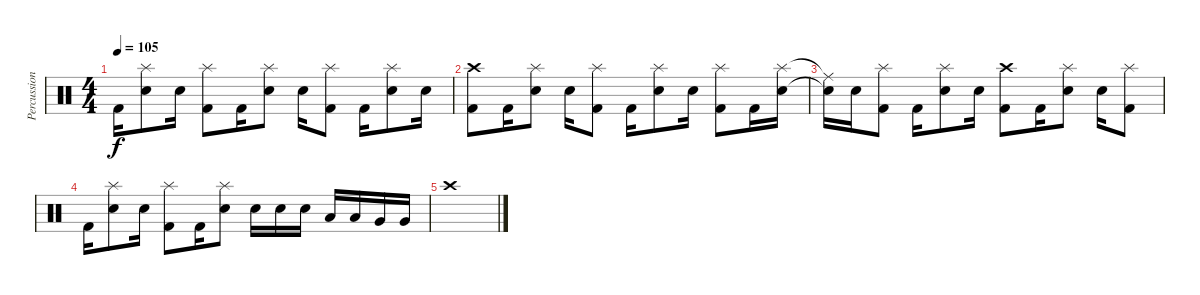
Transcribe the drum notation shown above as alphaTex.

\track ("Percussion" "Percussion") {instrument percussion}
\staff {score}
\articulation defaults
\ts (4 4)
\tempo 105
\clef neutral
\ks c "Kick (hit) 2".16{dy f}
("Electric Snare (hit)" "Splash (hit)").8 "Electric Snare (hit)".16 ("Kick (hit) 2" "Splash (hit)").8 "Kick (hit) 2".16 ("Electric Snare (hit)" "Splash (hit)").8 "Electric Snare (hit)".16 ("Kick (hit) 2" "Splash (hit)").8 "Kick (hit) 2".16 ("Electric Snare (hit)" "Splash (hit)").8 "Electric Snare (hit)".16 |
("Kick (hit) 2" "Crash high (hit)").8 "Kick (hit) 2".16 ("Electric Snare (hit)" "Splash (hit)").8 "Electric Snare (hit)".16 ("Kick (hit) 2" "Splash (hit)").8 "Kick (hit) 2".16 ("Electric Snare (hit)" "Splash (hit)").8 "Electric Snare (hit)".16 ("Kick (hit) 2" "Splash (hit)").8 "Kick (hit) 2".16 ("Electric Snare (hit)" "Splash (hit)").16 |
("Electric Snare (hit)"{t} "Ride (middle)"{t}).16 "Electric Snare (hit)".16 ("Kick (hit) 2" "Splash (hit)").8 "Kick (hit) 2".16 ("Electric Snare (hit)" "Splash (hit)").8 "Electric Snare (hit)".16 ("Kick (hit) 2" "Crash high (hit)").8 "Kick (hit) 2".16 ("Electric Snare (hit)" "Splash (hit)").8 "Electric Snare (hit)".16 ("Kick (hit) 2" "Splash (hit)").8 |
"Kick (hit) 2".16 ("Electric Snare (hit)" "Splash (hit)").8 "Electric Snare (hit)".16 ("Kick (hit) 2" "Splash (hit)").8 "Kick (hit) 2".16 ("Electric Snare (hit)" "Splash (hit)").8 "Electric Snare (hit)".16 "Electric Snare (hit)".16 "Electric Snare (hit)".16 "Low Floor Tom (hit)".16 "Low Floor Tom (hit)".16 "Very Low Tom (hit)".16 "Very Low Tom (hit)".16 |
"Crash high (hit)".1
